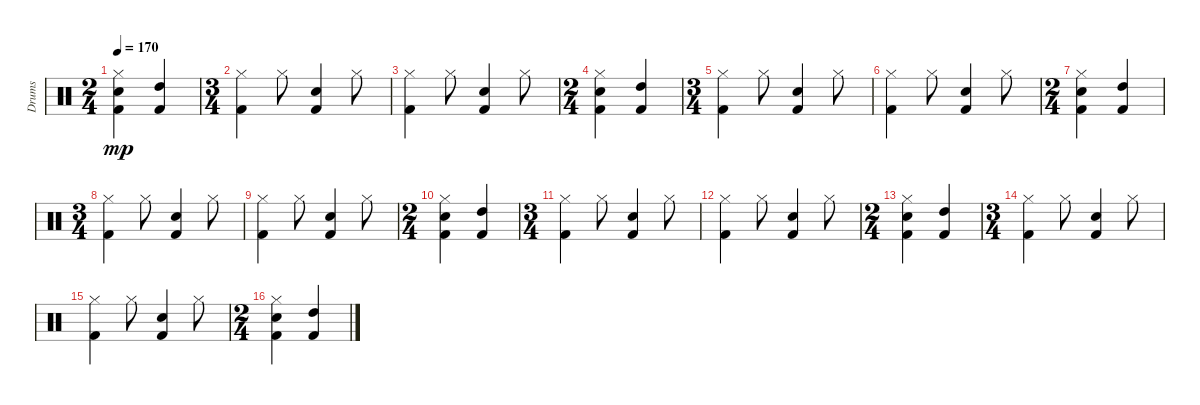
\track ("Drums" "Drums") {instrument percussion}
\staff {score}
\articulation defaults
\ts (2 4)
\tempo 170
\clef neutral
\ks c
("Hi-Hat (closed)" "Snare (hit) 2" "Kick (hit) 2").4{dy mp} ("High Tom (hit)" "Kick (hit) 2").4 |
\ts (3 4)
("Hi-Hat (closed)" "Kick (hit) 2").4 "Hi-Hat (closed)".8 ("Snare (hit) 2" "Kick (hit) 2").4 "Hi-Hat (closed)".8 |
("Hi-Hat (closed)" "Kick (hit) 2").4 "Hi-Hat (closed)".8 ("Snare (hit) 2" "Kick (hit) 2").4 "Hi-Hat (closed)".8 |
\ts (2 4)
("Hi-Hat (closed)" "Snare (hit) 2" "Kick (hit) 2").4 ("High Tom (hit)" "Kick (hit) 2").4 |
\ts (3 4)
("Hi-Hat (closed)" "Kick (hit) 2").4 "Hi-Hat (closed)".8 ("Snare (hit) 2" "Kick (hit) 2").4 "Hi-Hat (closed)".8 |
("Hi-Hat (closed)" "Kick (hit) 2").4 "Hi-Hat (closed)".8 ("Snare (hit) 2" "Kick (hit) 2").4 "Hi-Hat (closed)".8 |
\ts (2 4)
("Hi-Hat (closed)" "Snare (hit) 2" "Kick (hit) 2").4 ("High Tom (hit)" "Kick (hit) 2").4 |
\ts (3 4)
("Hi-Hat (closed)" "Kick (hit) 2").4 "Hi-Hat (closed)".8 ("Snare (hit) 2" "Kick (hit) 2").4 "Hi-Hat (closed)".8 |
("Hi-Hat (closed)" "Kick (hit) 2").4 "Hi-Hat (closed)".8 ("Snare (hit) 2" "Kick (hit) 2").4 "Hi-Hat (closed)".8 |
\ts (2 4)
("Hi-Hat (closed)" "Snare (hit) 2" "Kick (hit) 2").4 ("High Tom (hit)" "Kick (hit) 2").4 |
\ts (3 4)
("Hi-Hat (closed)" "Kick (hit) 2").4 "Hi-Hat (closed)".8 ("Snare (hit) 2" "Kick (hit) 2").4 "Hi-Hat (closed)".8 |
("Hi-Hat (closed)" "Kick (hit) 2").4 "Hi-Hat (closed)".8 ("Snare (hit) 2" "Kick (hit) 2").4 "Hi-Hat (closed)".8 |
\ts (2 4)
("Hi-Hat (closed)" "Snare (hit) 2" "Kick (hit) 2").4 ("High Tom (hit)" "Kick (hit) 2").4 |
\ts (3 4)
("Hi-Hat (closed)" "Kick (hit) 2").4 "Hi-Hat (closed)".8 ("Snare (hit) 2" "Kick (hit) 2").4 "Hi-Hat (closed)".8 |
("Hi-Hat (closed)" "Kick (hit) 2").4 "Hi-Hat (closed)".8 ("Snare (hit) 2" "Kick (hit) 2").4 "Hi-Hat (closed)".8 |
\ts (2 4)
("Hi-Hat (closed)" "Snare (hit) 2" "Kick (hit) 2").4 ("High Tom (hit)" "Kick (hit) 2").4
